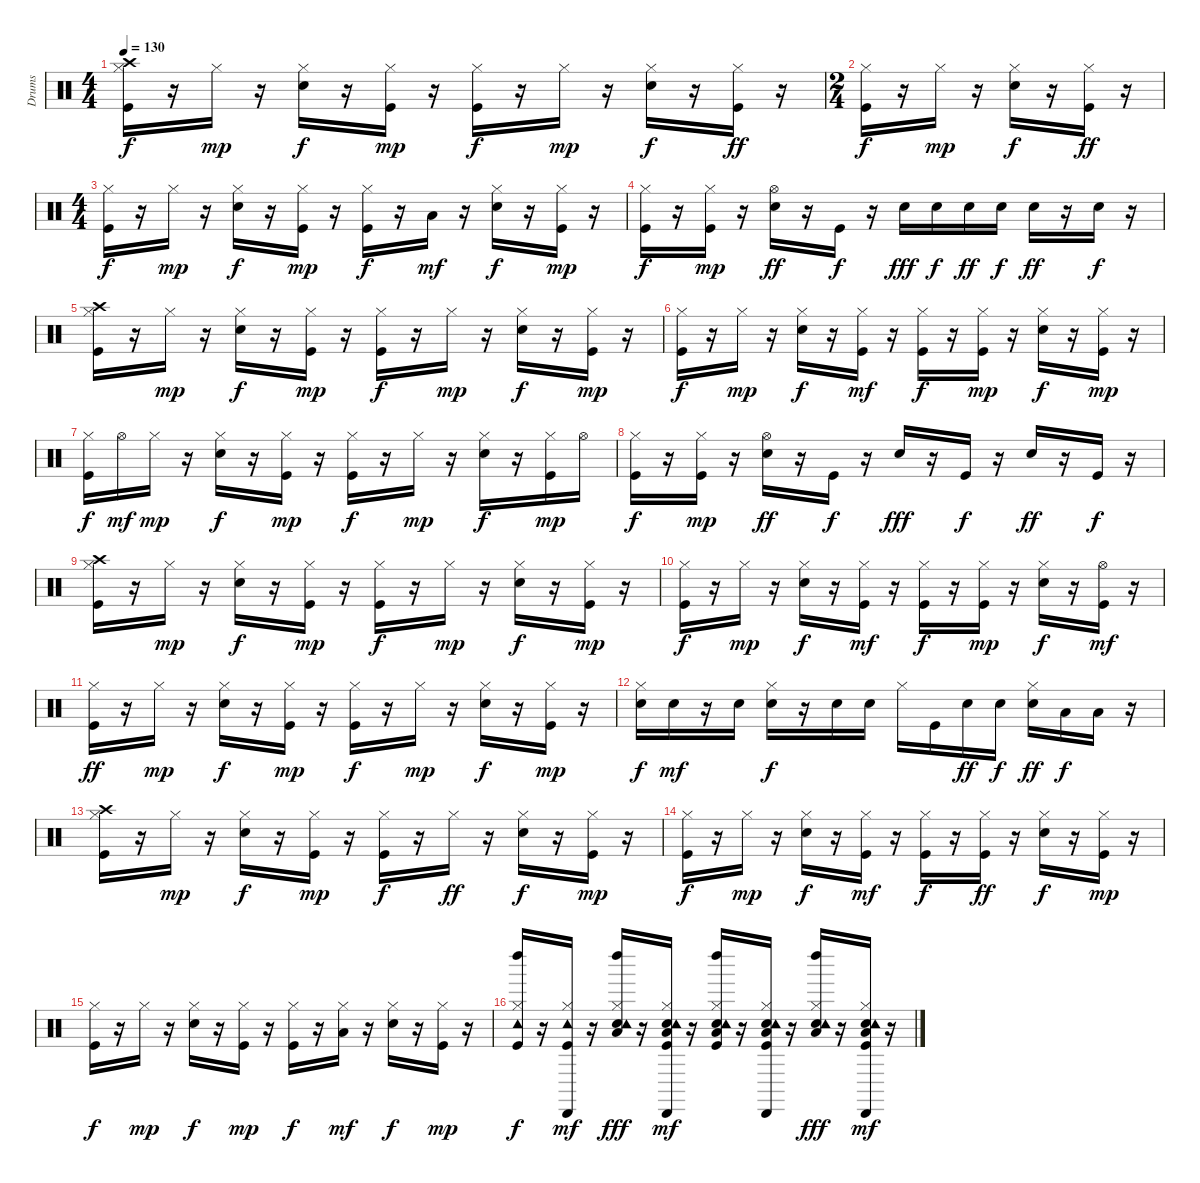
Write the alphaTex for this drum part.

\track ("Drums" "Drums") {instrument percussion}
\staff {score}
\articulation defaults
\ts (4 4)
\tempo 130
\clef neutral
\ks c
("Kick (hit)" "Hi-Hat (closed)" "Crash high (hit)").16{dy f} r.16 "Hi-Hat (closed)".16{dy mp} r.16 ("Snare (hit) 2" "Hi-Hat (closed)").16{dy f} r.16 ("Kick (hit)" "Hi-Hat (closed)").16{dy mp} r.16 ("Kick (hit)" "Hi-Hat (closed)").16{dy f} r.16 "Hi-Hat (closed)".16{dy mp} r.16 ("Snare (hit) 2" "Hi-Hat (closed)").16{dy f} r.16 ("Kick (hit)" "Hi-Hat (closed)").16{dy ff} r.16 |
\ts (2 4)
("Kick (hit)" "Hi-Hat (closed)").16{dy f} r.16 "Hi-Hat (closed)".16{dy mp} r.16 ("Snare (hit) 2" "Hi-Hat (closed)").16{dy f} r.16 ("Kick (hit)" "Hi-Hat (closed)").16{dy ff} r.16 |
\ts (4 4)
("Kick (hit)" "Hi-Hat (closed)").16{dy f} r.16 "Hi-Hat (closed)".16{dy mp} r.16 ("Snare (hit) 2" "Hi-Hat (closed)").16{dy f} r.16 ("Kick (hit)" "Hi-Hat (closed)").16{dy mp} r.16 ("Kick (hit)" "Hi-Hat (closed)").16{dy f} r.16 "Low Floor Tom (hit)".16{dy mf} r.16 ("Snare (hit) 2" "Hi-Hat (closed)").16{dy f} r.16 ("Kick (hit)" "Hi-Hat (closed)").16{dy mp} r.16 |
("Kick (hit)" "Hi-Hat (closed)").16{dy f} r.16 ("Kick (hit)" "Hi-Hat (closed)").16{dy mp} r.16 ("Snare (hit) 2" "Hi-Hat (open)").16{dy ff} r.16 "Kick (hit)".16{dy f} r.16 "Snare (hit) 2".16{dy fff} "Snare (hit) 2".16{dy f} "Snare (hit) 2".16{dy ff} "Snare (hit) 2".16{dy f} "Snare (hit) 2".16{dy ff} r.16 "Snare (hit) 2".16{dy f} r.16 |
("Kick (hit)" "Hi-Hat (closed)" "Crash high (hit)").16 r.16 "Hi-Hat (closed)".16{dy mp} r.16 ("Snare (hit) 2" "Hi-Hat (closed)").16{dy f} r.16 ("Kick (hit)" "Hi-Hat (closed)").16{dy mp} r.16 ("Kick (hit)" "Hi-Hat (closed)").16{dy f} r.16 "Hi-Hat (closed)".16{dy mp} r.16 ("Snare (hit) 2" "Hi-Hat (closed)").16{dy f} r.16 ("Kick (hit)" "Hi-Hat (closed)").16{dy mp} r.16 |
("Kick (hit)" "Hi-Hat (closed)").16{dy f} r.16 "Hi-Hat (closed)".16{dy mp} r.16 ("Snare (hit) 2" "Hi-Hat (closed)").16{dy f} r.16 ("Kick (hit)" "Hi-Hat (closed)").16{dy mf} r.16 ("Kick (hit)" "Hi-Hat (closed)").16{dy f} r.16 ("Kick (hit)" "Hi-Hat (closed)").16{dy mp} r.16 ("Snare (hit) 2" "Hi-Hat (closed)").16{dy f} r.16 ("Kick (hit)" "Hi-Hat (closed)").16{dy mp} r.16 |
("Kick (hit)" "Hi-Hat (closed)").16{dy f} "Hi-Hat (open)".16{dy mf} "Hi-Hat (closed)".16{dy mp} r.16 ("Snare (hit) 2" "Hi-Hat (closed)").16{dy f} r.16 ("Kick (hit)" "Hi-Hat (closed)").16{dy mp} r.16 ("Kick (hit)" "Hi-Hat (closed)").16{dy f} r.16 "Hi-Hat (closed)".16{dy mp} r.16 ("Snare (hit) 2" "Hi-Hat (closed)").16{dy f} r.16 ("Kick (hit)" "Hi-Hat (closed)").16{dy mp} "Hi-Hat (open)".16 |
("Kick (hit)" "Hi-Hat (closed)").16{dy f} r.16 ("Kick (hit)" "Hi-Hat (closed)").16{dy mp} r.16 ("Snare (hit) 2" "Hi-Hat (open)").16{dy ff} r.16 "Kick (hit)".16{dy f} r.16 "Snare (hit) 2".16{dy fff} r.16 "Kick (hit)".16{dy f} r.16 "Snare (hit) 2".16{dy ff} r.16 "Kick (hit)".16{dy f} r.16 |
("Kick (hit)" "Hi-Hat (closed)" "Crash high (hit)").16 r.16 "Hi-Hat (closed)".16{dy mp} r.16 ("Snare (hit) 2" "Hi-Hat (closed)").16{dy f} r.16 ("Kick (hit)" "Hi-Hat (closed)").16{dy mp} r.16 ("Kick (hit)" "Hi-Hat (closed)").16{dy f} r.16 "Hi-Hat (closed)".16{dy mp} r.16 ("Snare (hit) 2" "Hi-Hat (closed)").16{dy f} r.16 ("Kick (hit)" "Hi-Hat (closed)").16{dy mp} r.16 |
("Kick (hit)" "Hi-Hat (closed)").16{dy f} r.16 "Hi-Hat (closed)".16{dy mp} r.16 ("Snare (hit) 2" "Hi-Hat (closed)").16{dy f} r.16 ("Kick (hit)" "Hi-Hat (closed)").16{dy mf} r.16 ("Kick (hit)" "Hi-Hat (closed)").16{dy f} r.16 ("Kick (hit)" "Hi-Hat (closed)").16{dy mp} r.16 ("Snare (hit) 2" "Hi-Hat (closed)").16{dy f} r.16 ("Kick (hit)" "Hi-Hat (open)").16{dy mf} r.16 |
("Kick (hit)" "Hi-Hat (closed)").16{dy ff} r.16 "Hi-Hat (closed)".16{dy mp} r.16 ("Snare (hit) 2" "Hi-Hat (closed)").16{dy f} r.16 ("Kick (hit)" "Hi-Hat (closed)").16{dy mp} r.16 ("Kick (hit)" "Hi-Hat (closed)").16{dy f} r.16 "Hi-Hat (closed)".16{dy mp} r.16 ("Snare (hit) 2" "Hi-Hat (closed)").16{dy f} r.16 ("Kick (hit)" "Hi-Hat (closed)").16{dy mp} r.16 |
("Snare (hit) 2" "Hi-Hat (closed)").16{dy f} "Snare (hit) 2".16{dy mf} r.16 "Snare (hit) 2".16 ("Snare (hit) 2" "Hi-Hat (closed)").16{dy f} r.16 "Snare (hit) 2".16 "Snare (hit) 2".16 "Hi-Hat (closed)".16 "Kick (hit)".16 "Snare (hit) 2".16{dy ff} "Snare (hit) 2".16{dy f} ("Snare (hit) 2" "Hi-Hat (closed)").16{dy ff} "Low Tom (hit)".16{dy f} "Low Floor Tom (hit)".16 r.16 |
("Kick (hit)" "Hi-Hat (closed)" "Crash high (hit)").16 r.16 "Hi-Hat (closed)".16{dy mp} r.16 ("Snare (hit) 2" "Hi-Hat (closed)").16{dy f} r.16 ("Kick (hit)" "Hi-Hat (closed)").16{dy mp} r.16 ("Kick (hit)" "Hi-Hat (closed)").16{dy f} r.16 "Hi-Hat (closed)".16{dy ff} r.16 ("Snare (hit) 2" "Hi-Hat (closed)").16{dy f} r.16 ("Kick (hit)" "Hi-Hat (closed)").16{dy mp} r.16 |
("Kick (hit)" "Hi-Hat (closed)").16{dy f} r.16 "Hi-Hat (closed)".16{dy mp} r.16 ("Snare (hit) 2" "Hi-Hat (closed)").16{dy f} r.16 ("Kick (hit)" "Hi-Hat (closed)").16{dy mf} r.16 ("Kick (hit)" "Hi-Hat (closed)").16{dy f} r.16 ("Kick (hit)" "Hi-Hat (closed)").16{dy ff} r.16 ("Snare (hit) 2" "Hi-Hat (closed)").16{dy f} r.16 ("Kick (hit)" "Hi-Hat (closed)").16{dy mp} r.16 |
("Kick (hit)" "Hi-Hat (closed)").16{dy f} r.16 "Hi-Hat (closed)".16{dy mp} r.16 ("Snare (hit) 2" "Hi-Hat (closed)").16{dy f} r.16 ("Kick (hit)" "Hi-Hat (closed)").16{dy mp} r.16 ("Kick (hit)" "Hi-Hat (closed)").16{dy f} r.16 ("Hi-Hat (closed)" "Low Floor Tom (hit)").16{dy mf} r.16 ("Snare (hit) 2" "Hi-Hat (closed)").16{dy f} r.16 ("Kick (hit)" "Hi-Hat (closed)").16{dy mp} r.16 |
("Kick (hit)" "Hi-Hat (closed)" "Tambourine (hit)" "Left Maraca (hit)").16{dy f} r.16 ("Kick (hit)" "Hi-Hat (closed)" "Tambourine (hit)" "Cabasa (hit)").16{dy mf} r.16 ("Snare (hit) 2" "Hi-Hat (closed)" "Low Floor Tom (hit)" "Tambourine (hit)" "Left Maraca (hit)").16{dy fff} r.16 ("Kick (hit)" "Snare (hit) 2" "Hi-Hat (closed)" "Low Floor Tom (hit)" "Tambourine (hit)" "Cabasa (hit)").16{dy mf} r.16 ("Kick (hit)" "Snare (hit) 2" "Hi-Hat (closed)" "Low Floor Tom (hit)" "Tambourine (hit)" "Left Maraca (hit)").16 r.16 ("Kick (hit)" "Snare (hit) 2" "Hi-Hat (closed)" "Low Floor Tom (hit)" "Tambourine (hit)" "Cabasa (hit)").16 r.16 ("Snare (hit) 2" "Hi-Hat (closed)" "Low Floor Tom (hit)" "Tambourine (hit)" "Left Maraca (hit)").16{dy fff} r.16 ("Kick (hit)" "Snare (hit) 2" "Hi-Hat (closed)" "Low Floor Tom (hit)" "Tambourine (hit)" "Cabasa (hit)").16{dy mf} r.16
